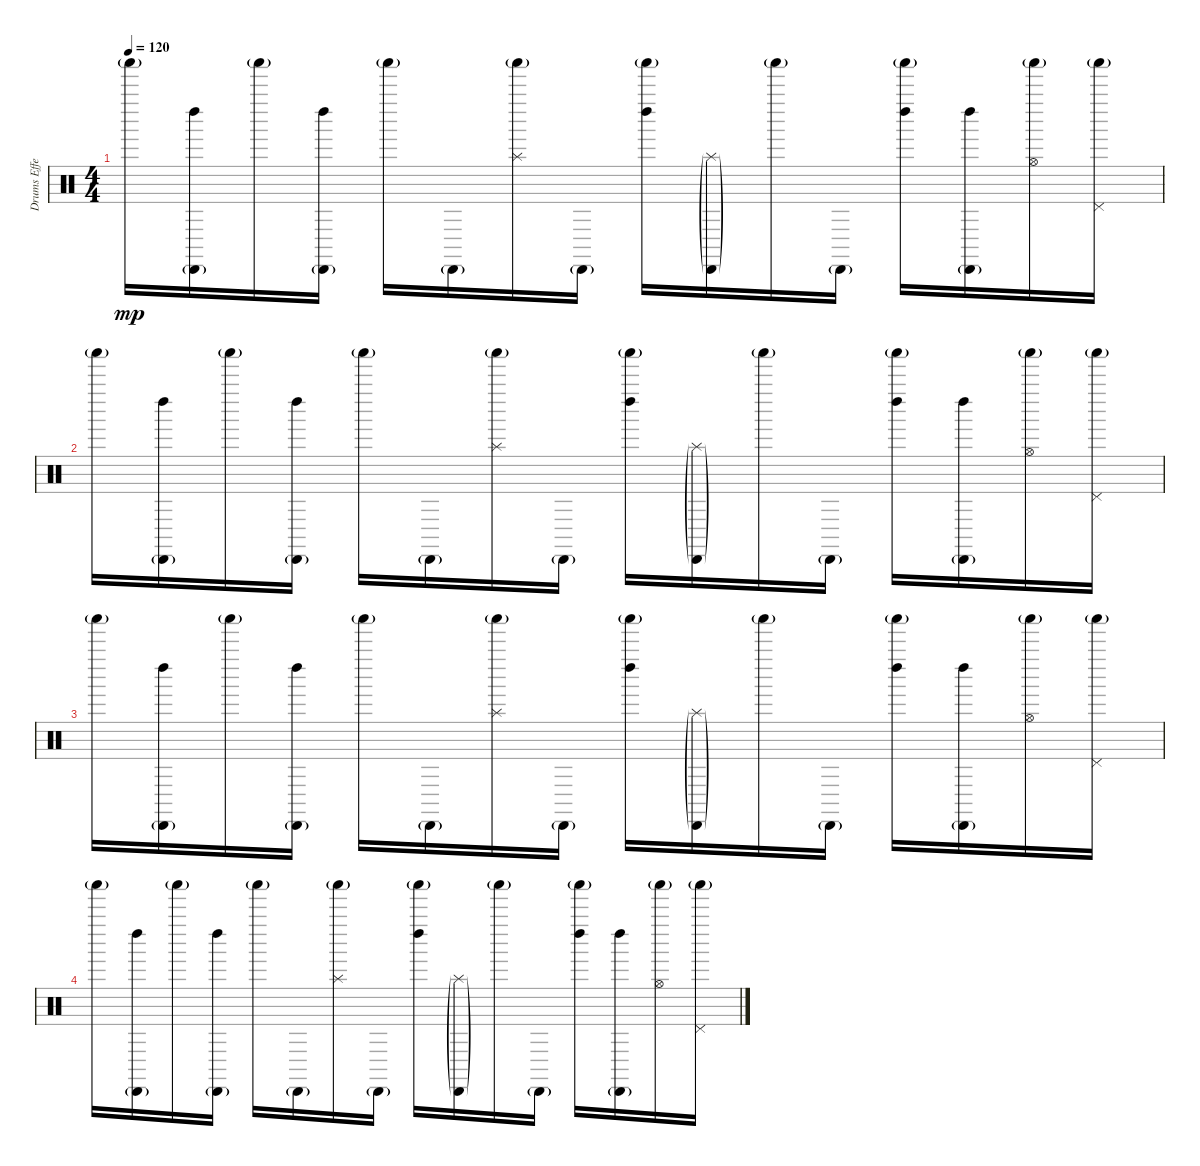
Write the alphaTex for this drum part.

\track ("Drums Effects" "Drums Effe") {instrument percussion}
\staff {score}
\articulation defaults
\ts (4 4)
\tempo 120
\clef neutral
\ks c "Shaker (hit)"{g}.16{dy mp}
("Cabasa (hit)"{g} "Left Maraca (hit)").16 "Shaker (hit)"{g}.16 ("Cabasa (hit)"{g} "Left Maraca (hit)").16 "Shaker (hit)"{g}.16 "Cabasa (hit)"{g}.16 ("Shaker (hit)"{g} "Splash (hit)").16 "Cabasa (hit)"{g}.16 ("Shaker (hit)"{g} "Left Maraca (hit)").16 ("Cabasa (hit)"{g} "Splash (hit)"{g}).16 "Shaker (hit)"{g}.16 "Cabasa (hit)"{g}.16 ("Shaker (hit)"{g} "Left Maraca (hit)").16 ("Cabasa (hit)"{g} "Left Maraca (hit)").16 ("Shaker (hit)"{g} "Hi-Hat (open)").16 ("Shaker (hit)"{g} "Pedal Hi-Hat (hit)").16 |
"Shaker (hit)"{g}.16 ("Cabasa (hit)"{g} "Left Maraca (hit)").16 "Shaker (hit)"{g}.16 ("Cabasa (hit)"{g} "Left Maraca (hit)").16 "Shaker (hit)"{g}.16 "Cabasa (hit)"{g}.16 ("Shaker (hit)"{g} "Splash (hit)").16 "Cabasa (hit)"{g}.16 ("Shaker (hit)"{g} "Left Maraca (hit)").16 ("Cabasa (hit)"{g} "Splash (hit)"{g}).16 "Shaker (hit)"{g}.16 "Cabasa (hit)"{g}.16 ("Shaker (hit)"{g} "Left Maraca (hit)").16 ("Cabasa (hit)"{g} "Left Maraca (hit)").16 ("Shaker (hit)"{g} "Hi-Hat (open)").16 ("Shaker (hit)"{g} "Pedal Hi-Hat (hit)").16 |
"Shaker (hit)"{g}.16 ("Cabasa (hit)"{g} "Left Maraca (hit)").16 "Shaker (hit)"{g}.16 ("Cabasa (hit)"{g} "Left Maraca (hit)").16 "Shaker (hit)"{g}.16 "Cabasa (hit)"{g}.16 ("Shaker (hit)"{g} "Splash (hit)").16 "Cabasa (hit)"{g}.16 ("Shaker (hit)"{g} "Left Maraca (hit)").16 ("Cabasa (hit)"{g} "Splash (hit)"{g}).16 "Shaker (hit)"{g}.16 "Cabasa (hit)"{g}.16 ("Shaker (hit)"{g} "Left Maraca (hit)").16 ("Cabasa (hit)"{g} "Left Maraca (hit)").16 ("Shaker (hit)"{g} "Hi-Hat (open)").16 ("Shaker (hit)"{g} "Pedal Hi-Hat (hit)").16 |
"Shaker (hit)"{g}.16 ("Cabasa (hit)"{g} "Left Maraca (hit)").16 "Shaker (hit)"{g}.16 ("Cabasa (hit)"{g} "Left Maraca (hit)").16 "Shaker (hit)"{g}.16 "Cabasa (hit)"{g}.16 ("Shaker (hit)"{g} "Splash (hit)").16 "Cabasa (hit)"{g}.16 ("Shaker (hit)"{g} "Left Maraca (hit)").16 ("Cabasa (hit)"{g} "Splash (hit)"{g}).16 "Shaker (hit)"{g}.16 "Cabasa (hit)"{g}.16 ("Shaker (hit)"{g} "Left Maraca (hit)").16 ("Cabasa (hit)"{g} "Left Maraca (hit)").16 ("Shaker (hit)"{g} "Hi-Hat (open)").16 ("Shaker (hit)"{g} "Pedal Hi-Hat (hit)").16
